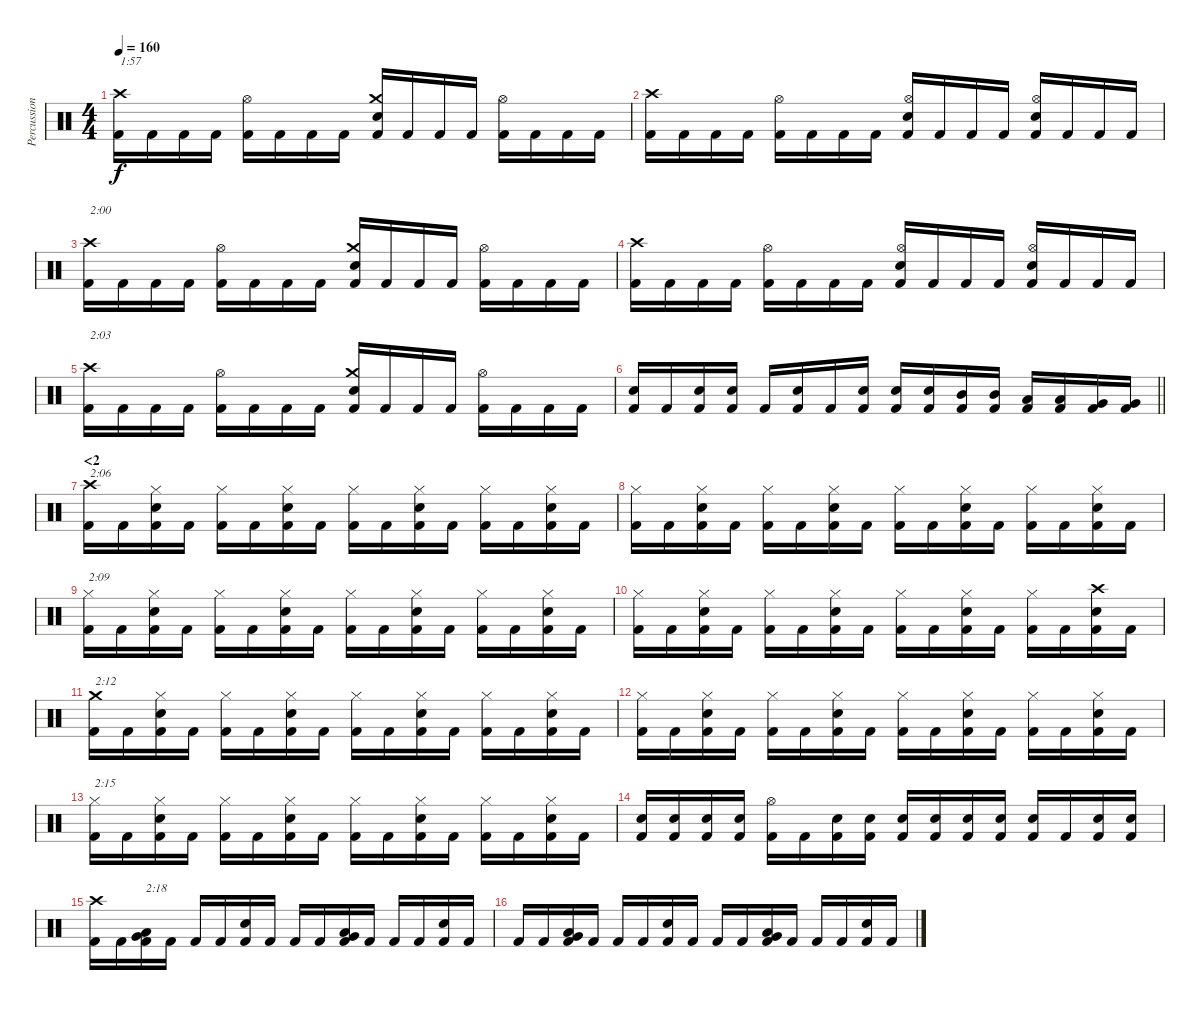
\track ("Percussion" "Percussion") {instrument percussion}
\staff {score}
\articulation defaults
\ts (4 4)
\tempo 160
\clef neutral
\ks c
("Crash high (hit)" "Kick (hit) 2").16{txt "1:57" dy f} "Kick (hit) 2".16 "Kick (hit) 2".16 "Kick (hit) 2".16 ("Hi-Hat (open)" "Kick (hit) 2").16 "Kick (hit) 2".16 "Kick (hit) 2".16 "Kick (hit) 2".16 ("Crash medium (hit)" "Electric Snare (hit)" "Kick (hit) 2").16 "Kick (hit) 2".16 "Kick (hit) 2".16 "Kick (hit) 2".16 ("Hi-Hat (open)" "Kick (hit) 2").16 "Kick (hit) 2".16 "Kick (hit) 2".16 "Kick (hit) 2".16 |
("Crash high (hit)" "Kick (hit) 2").16 "Kick (hit) 2".16 "Kick (hit) 2".16 "Kick (hit) 2".16 ("Hi-Hat (open)" "Kick (hit) 2").16 "Kick (hit) 2".16 "Kick (hit) 2".16 "Kick (hit) 2".16 ("Hi-Hat (open)" "Electric Snare (hit)" "Kick (hit) 2").16 "Kick (hit) 2".16 "Kick (hit) 2".16 "Kick (hit) 2".16 ("Hi-Hat (open)" "Electric Snare (hit)" "Kick (hit) 2").16 "Kick (hit) 2".16 "Kick (hit) 2".16 "Kick (hit) 2".16 |
("Crash high (hit)" "Kick (hit) 2").16{txt "2:00"} "Kick (hit) 2".16 "Kick (hit) 2".16 "Kick (hit) 2".16 ("Hi-Hat (open)" "Kick (hit) 2").16 "Kick (hit) 2".16 "Kick (hit) 2".16 "Kick (hit) 2".16 ("Crash medium (hit)" "Electric Snare (hit)" "Kick (hit) 2").16 "Kick (hit) 2".16 "Kick (hit) 2".16 "Kick (hit) 2".16 ("Hi-Hat (open)" "Kick (hit) 2").16 "Kick (hit) 2".16 "Kick (hit) 2".16 "Kick (hit) 2".16 |
("Crash high (hit)" "Kick (hit) 2").16 "Kick (hit) 2".16 "Kick (hit) 2".16 "Kick (hit) 2".16 ("Hi-Hat (open)" "Kick (hit) 2").16 "Kick (hit) 2".16 "Kick (hit) 2".16 "Kick (hit) 2".16 ("Hi-Hat (open)" "Electric Snare (hit)" "Kick (hit) 2").16 "Kick (hit) 2".16 "Kick (hit) 2".16 "Kick (hit) 2".16 ("Hi-Hat (open)" "Electric Snare (hit)" "Kick (hit) 2").16 "Kick (hit) 2".16 "Kick (hit) 2".16 "Kick (hit) 2".16 |
("Crash high (hit)" "Kick (hit) 2").16{txt "2:03"} "Kick (hit) 2".16 "Kick (hit) 2".16 "Kick (hit) 2".16 ("Hi-Hat (open)" "Kick (hit) 2").16 "Kick (hit) 2".16 "Kick (hit) 2".16 "Kick (hit) 2".16 ("Crash medium (hit)" "Electric Snare (hit)" "Kick (hit) 2").16 "Kick (hit) 2".16 "Kick (hit) 2".16 "Kick (hit) 2".16 ("Hi-Hat (open)" "Kick (hit) 2").16 "Kick (hit) 2".16 "Kick (hit) 2".16 "Kick (hit) 2".16 |
\barLineRight lightlight
("Electric Snare (hit)" "Kick (hit) 2").16 "Kick (hit) 2".16 ("Electric Snare (hit)" "Kick (hit) 2").16 ("Electric Snare (hit)" "Kick (hit) 2").16 "Kick (hit) 2".16 ("Electric Snare (hit)" "Kick (hit) 2").16 "Kick (hit) 2".16 ("Electric Snare (hit)" "Kick (hit) 2").16 ("Electric Snare (hit)" "Kick (hit) 2").16 ("Electric Snare (hit)" "Kick (hit) 2").16 ("Mid Tom (hit)" "Kick (hit) 2").16 ("Mid Tom (hit)" "Kick (hit) 2").16 ("Low Tom (hit)" "Kick (hit) 2").16 ("Low Tom (hit)" "Kick (hit) 2").16 ("Very Low Tom (hit)" "Kick (hit) 2").16 ("Very Low Tom (hit)" "Kick (hit) 2").16 |
\section ("" "<2")
("Crash high (hit)" "Kick (hit) 2").16{txt "2:06"} "Kick (hit) 2".16 ("Hi-Hat (closed)" "Electric Snare (hit)" "Kick (hit) 2").16 "Kick (hit) 2".16 ("Hi-Hat (closed)" "Kick (hit) 2").16 "Kick (hit) 2".16 ("Hi-Hat (closed)" "Electric Snare (hit)" "Kick (hit) 2").16 "Kick (hit) 2".16 ("Hi-Hat (closed)" "Kick (hit) 2").16 "Kick (hit) 2".16 ("Hi-Hat (closed)" "Electric Snare (hit)" "Kick (hit) 2").16 "Kick (hit) 2".16 ("Hi-Hat (closed)" "Kick (hit) 2").16 "Kick (hit) 2".16 ("Hi-Hat (closed)" "Electric Snare (hit)" "Kick (hit) 2").16 "Kick (hit) 2".16 |
("Hi-Hat (closed)" "Kick (hit) 2").16 "Kick (hit) 2".16 ("Hi-Hat (closed)" "Electric Snare (hit)" "Kick (hit) 2").16 "Kick (hit) 2".16 ("Hi-Hat (closed)" "Kick (hit) 2").16 "Kick (hit) 2".16 ("Hi-Hat (closed)" "Electric Snare (hit)" "Kick (hit) 2").16 "Kick (hit) 2".16 ("Hi-Hat (closed)" "Kick (hit) 2").16 "Kick (hit) 2".16 ("Hi-Hat (closed)" "Electric Snare (hit)" "Kick (hit) 2").16 "Kick (hit) 2".16 ("Hi-Hat (closed)" "Kick (hit) 2").16 "Kick (hit) 2".16 ("Hi-Hat (closed)" "Electric Snare (hit)" "Kick (hit) 2").16 "Kick (hit) 2".16 |
("Hi-Hat (closed)" "Kick (hit) 2").16{txt "2:09"} "Kick (hit) 2".16 ("Hi-Hat (closed)" "Electric Snare (hit)" "Kick (hit) 2").16 "Kick (hit) 2".16 ("Hi-Hat (closed)" "Kick (hit) 2").16 "Kick (hit) 2".16 ("Hi-Hat (closed)" "Electric Snare (hit)" "Kick (hit) 2").16 "Kick (hit) 2".16 ("Hi-Hat (closed)" "Kick (hit) 2").16 "Kick (hit) 2".16 ("Hi-Hat (closed)" "Electric Snare (hit)" "Kick (hit) 2").16 "Kick (hit) 2".16 ("Hi-Hat (closed)" "Kick (hit) 2").16 "Kick (hit) 2".16 ("Hi-Hat (closed)" "Electric Snare (hit)" "Kick (hit) 2").16 "Kick (hit) 2".16 |
("Hi-Hat (closed)" "Kick (hit) 2").16 "Kick (hit) 2".16 ("Hi-Hat (closed)" "Electric Snare (hit)" "Kick (hit) 2").16 "Kick (hit) 2".16 ("Hi-Hat (closed)" "Kick (hit) 2").16 "Kick (hit) 2".16 ("Hi-Hat (closed)" "Electric Snare (hit)" "Kick (hit) 2").16 "Kick (hit) 2".16 ("Hi-Hat (closed)" "Kick (hit) 2").16 "Kick (hit) 2".16 ("Hi-Hat (closed)" "Electric Snare (hit)" "Kick (hit) 2").16 "Kick (hit) 2".16 ("Hi-Hat (closed)" "Kick (hit) 2").16 "Kick (hit) 2".16 ("Crash high (hit)" "Electric Snare (hit)" "Kick (hit) 2").16 "Kick (hit) 2".16 |
("Crash medium (hit)" "Kick (hit) 2").16{txt "2:12"} "Kick (hit) 2".16 ("Hi-Hat (closed)" "Electric Snare (hit)" "Kick (hit) 2").16 "Kick (hit) 2".16 ("Hi-Hat (closed)" "Kick (hit) 2").16 "Kick (hit) 2".16 ("Hi-Hat (closed)" "Electric Snare (hit)" "Kick (hit) 2").16 "Kick (hit) 2".16 ("Hi-Hat (closed)" "Kick (hit) 2").16 "Kick (hit) 2".16 ("Hi-Hat (closed)" "Electric Snare (hit)" "Kick (hit) 2").16 "Kick (hit) 2".16 ("Hi-Hat (closed)" "Kick (hit) 2").16 "Kick (hit) 2".16 ("Hi-Hat (closed)" "Electric Snare (hit)" "Kick (hit) 2").16 "Kick (hit) 2".16 |
("Hi-Hat (closed)" "Kick (hit) 2").16 "Kick (hit) 2".16 ("Hi-Hat (closed)" "Electric Snare (hit)" "Kick (hit) 2").16 "Kick (hit) 2".16 ("Hi-Hat (closed)" "Kick (hit) 2").16 "Kick (hit) 2".16 ("Hi-Hat (closed)" "Electric Snare (hit)" "Kick (hit) 2").16 "Kick (hit) 2".16 ("Hi-Hat (closed)" "Kick (hit) 2").16 "Kick (hit) 2".16 ("Hi-Hat (closed)" "Electric Snare (hit)" "Kick (hit) 2").16 "Kick (hit) 2".16 ("Hi-Hat (closed)" "Kick (hit) 2").16 "Kick (hit) 2".16 ("Hi-Hat (closed)" "Electric Snare (hit)" "Kick (hit) 2").16 "Kick (hit) 2".16 |
("Hi-Hat (closed)" "Kick (hit) 2").16{txt "2:15"} "Kick (hit) 2".16 ("Hi-Hat (closed)" "Electric Snare (hit)" "Kick (hit) 2").16 "Kick (hit) 2".16 ("Hi-Hat (closed)" "Kick (hit) 2").16 "Kick (hit) 2".16 ("Hi-Hat (closed)" "Electric Snare (hit)" "Kick (hit) 2").16 "Kick (hit) 2".16 ("Hi-Hat (closed)" "Kick (hit) 2").16 "Kick (hit) 2".16 ("Hi-Hat (closed)" "Electric Snare (hit)" "Kick (hit) 2").16 "Kick (hit) 2".16 ("Hi-Hat (closed)" "Kick (hit) 2").16 "Kick (hit) 2".16 ("Hi-Hat (closed)" "Electric Snare (hit)" "Kick (hit) 2").16 "Kick (hit) 2".16 |
("Electric Snare (hit)" "Kick (hit) 2").16 ("Electric Snare (hit)" "Kick (hit) 2").16 ("Electric Snare (hit)" "Kick (hit) 2").16 ("Electric Snare (hit)" "Kick (hit) 2").16 ("Hi-Hat (open)" "Kick (hit) 2").16 "Kick (hit) 2".16 ("Electric Snare (hit)" "Kick (hit) 2").16 ("Electric Snare (hit)" "Kick (hit) 2").16 ("Electric Snare (hit)" "Kick (hit) 2").16 ("Electric Snare (hit)" "Kick (hit) 2").16 ("Electric Snare (hit)" "Kick (hit) 2").16 ("Electric Snare (hit)" "Kick (hit) 2").16 ("Electric Snare (hit)" "Kick (hit) 2").16 "Kick (hit) 2".16 ("Electric Snare (hit)" "Kick (hit) 2").16 ("Electric Snare (hit)" "Kick (hit) 2").16 |
("Crash high (hit)" "Kick (hit) 2").16 "Kick (hit) 2".16 ("Very Low Tom (hit)" "Low Floor Tom (hit)" "Kick (hit) 2").16{txt "2:18"} "Kick (hit) 2".16 "Kick (hit) 2".16 "Kick (hit) 2".16 ("Electric Snare (hit)" "Kick (hit) 2").16 "Kick (hit) 2".16 "Kick (hit) 2".16 "Kick (hit) 2".16 ("Very Low Tom (hit)" "Low Floor Tom (hit)" "Kick (hit) 2").16 "Kick (hit) 2".16 "Kick (hit) 2".16 "Kick (hit) 2".16 ("Electric Snare (hit)" "Kick (hit) 2").16 "Kick (hit) 2".16 |
"Kick (hit) 2".16 "Kick (hit) 2".16 ("Very Low Tom (hit)" "Low Floor Tom (hit)" "Kick (hit) 2").16 "Kick (hit) 2".16 "Kick (hit) 2".16 "Kick (hit) 2".16 ("Electric Snare (hit)" "Kick (hit) 2").16 "Kick (hit) 2".16 "Kick (hit) 2".16 "Kick (hit) 2".16 ("Very Low Tom (hit)" "Low Floor Tom (hit)" "Kick (hit) 2").16 "Kick (hit) 2".16 "Kick (hit) 2".16 "Kick (hit) 2".16 ("Electric Snare (hit)" "Kick (hit) 2").16 "Kick (hit) 2".16
